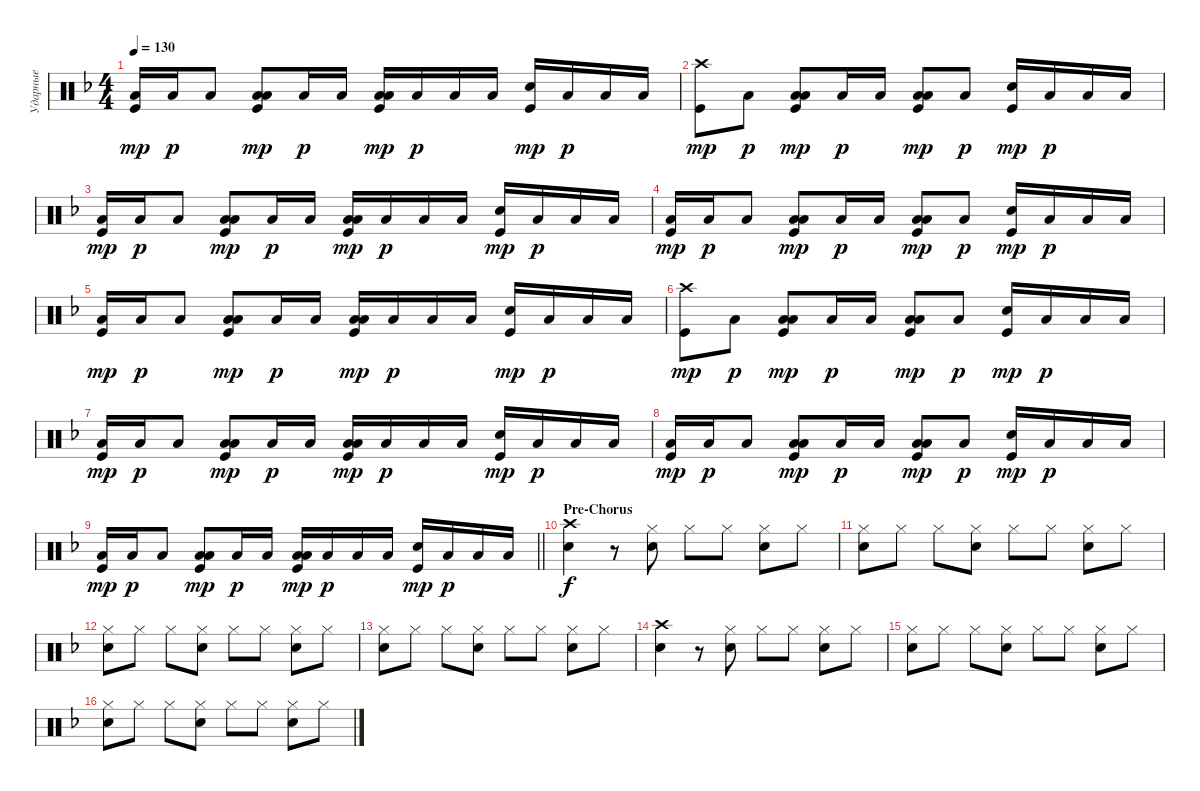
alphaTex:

\track ("Ударные" "Ударные") {instrument percussion}
\staff {score}
\articulation defaults
\ts (4 4)
\tempo 130
\clef neutral
\ks dminor
("Low Tom (hit)" "Kick (hit)").16{dy mp} "Low Tom (hit)".16{dy p} "Low Tom (hit)".8{bd 240} ("Low Tom (hit)" "Kick (hit)" "Low Tom (hit)").8{bd 240 dy mp} "Low Tom (hit)".16{dy p} "Low Tom (hit)".16 ("Low Tom (hit)" "Kick (hit)" "Low Tom (hit)").16{bd 240 dy mp} "Low Tom (hit)".16{dy p} "Low Tom (hit)".16 "Low Tom (hit)".16 ("Kick (hit)" "Snare (hit) 2").16{dy mp} "Low Tom (hit)".16{dy p} "Low Tom (hit)".16 "Low Tom (hit)".16 |
("Kick (hit)" "Crash high (hit)").8{dy mp} "Low Tom (hit)".8{dy p} ("Low Tom (hit)" "Kick (hit)" "Low Tom (hit)").8{bd 240 dy mp} "Low Tom (hit)".16{dy p} "Low Tom (hit)".16 ("Low Tom (hit)" "Kick (hit)" "Low Tom (hit)").8{bd 240 dy mp} "Low Tom (hit)".8{dy p} ("Kick (hit)" "Snare (hit) 2").16{dy mp} "Low Tom (hit)".16{dy p} "Low Tom (hit)".16 "Low Tom (hit)".16 |
("Low Tom (hit)" "Kick (hit)").16{dy mp} "Low Tom (hit)".16{dy p} "Low Tom (hit)".8{bd 240} ("Low Tom (hit)" "Kick (hit)" "Low Tom (hit)").8{bd 240 dy mp} "Low Tom (hit)".16{dy p} "Low Tom (hit)".16 ("Low Tom (hit)" "Kick (hit)" "Low Tom (hit)").16{bd 240 dy mp} "Low Tom (hit)".16{dy p} "Low Tom (hit)".16 "Low Tom (hit)".16 ("Kick (hit)" "Snare (hit) 2").16{dy mp} "Low Tom (hit)".16{dy p} "Low Tom (hit)".16 "Low Tom (hit)".16 |
("Low Tom (hit)" "Kick (hit)").16{dy mp} "Low Tom (hit)".16{dy p} "Low Tom (hit)".8{bd 240} ("Low Tom (hit)" "Kick (hit)" "Low Tom (hit)").8{bd 240 dy mp} "Low Tom (hit)".16{dy p} "Low Tom (hit)".16 ("Low Tom (hit)" "Kick (hit)" "Low Tom (hit)").8{bd 240 dy mp} "Low Tom (hit)".8{dy p} ("Kick (hit)" "Snare (hit) 2").16{dy mp} "Low Tom (hit)".16{dy p} "Low Tom (hit)".16 "Low Tom (hit)".16 |
("Low Tom (hit)" "Kick (hit)").16{dy mp} "Low Tom (hit)".16{dy p} "Low Tom (hit)".8{bd 240} ("Low Tom (hit)" "Kick (hit)" "Low Tom (hit)").8{bd 240 dy mp} "Low Tom (hit)".16{dy p} "Low Tom (hit)".16 ("Low Tom (hit)" "Kick (hit)" "Low Tom (hit)").16{bd 240 dy mp} "Low Tom (hit)".16{dy p} "Low Tom (hit)".16 "Low Tom (hit)".16 ("Kick (hit)" "Snare (hit) 2").16{dy mp} "Low Tom (hit)".16{dy p} "Low Tom (hit)".16 "Low Tom (hit)".16 |
("Kick (hit)" "Crash high (hit)").8{dy mp} "Low Tom (hit)".8{dy p} ("Low Tom (hit)" "Kick (hit)" "Low Tom (hit)").8{bd 240 dy mp} "Low Tom (hit)".16{dy p} "Low Tom (hit)".16 ("Low Tom (hit)" "Kick (hit)" "Low Tom (hit)").8{bd 240 dy mp} "Low Tom (hit)".8{dy p} ("Kick (hit)" "Snare (hit) 2").16{dy mp} "Low Tom (hit)".16{dy p} "Low Tom (hit)".16 "Low Tom (hit)".16 |
("Low Tom (hit)" "Kick (hit)").16{dy mp} "Low Tom (hit)".16{dy p} "Low Tom (hit)".8{bd 240} ("Low Tom (hit)" "Kick (hit)" "Low Tom (hit)").8{bd 240 dy mp} "Low Tom (hit)".16{dy p} "Low Tom (hit)".16 ("Low Tom (hit)" "Kick (hit)" "Low Tom (hit)").16{bd 240 dy mp} "Low Tom (hit)".16{dy p} "Low Tom (hit)".16 "Low Tom (hit)".16 ("Kick (hit)" "Snare (hit) 2").16{dy mp} "Low Tom (hit)".16{dy p} "Low Tom (hit)".16 "Low Tom (hit)".16 |
("Low Tom (hit)" "Kick (hit)").16{dy mp} "Low Tom (hit)".16{dy p} "Low Tom (hit)".8{bd 240} ("Low Tom (hit)" "Kick (hit)" "Low Tom (hit)").8{bd 240 dy mp} "Low Tom (hit)".16{dy p} "Low Tom (hit)".16 ("Low Tom (hit)" "Kick (hit)" "Low Tom (hit)").8{bd 240 dy mp} "Low Tom (hit)".8{dy p} ("Kick (hit)" "Snare (hit) 2").16{dy mp} "Low Tom (hit)".16{dy p} "Low Tom (hit)".16 "Low Tom (hit)".16 |
\barLineRight lightlight
("Low Tom (hit)" "Kick (hit)").16{dy mp} "Low Tom (hit)".16{dy p} "Low Tom (hit)".8{bd 240} ("Low Tom (hit)" "Kick (hit)" "Low Tom (hit)").8{bd 240 dy mp} "Low Tom (hit)".16{dy p} "Low Tom (hit)".16 ("Low Tom (hit)" "Kick (hit)" "Low Tom (hit)").16{bd 240 dy mp} "Low Tom (hit)".16{dy p} "Low Tom (hit)".16 "Low Tom (hit)".16 ("Kick (hit)" "Snare (hit) 2").16{dy mp} "Low Tom (hit)".16{dy p} "Low Tom (hit)".16 "Low Tom (hit)".16 |
\section ("" "Pre-Chorus")
("Snare (hit) 2" "Crash high (hit)").4{dy f} r.8 ("Hi-Hat (closed)" "Snare (hit) 2").8 "Hi-Hat (closed)".8 "Hi-Hat (closed)".8 ("Hi-Hat (closed)" "Snare (hit) 2").8 "Hi-Hat (closed)".8 |
("Snare (hit) 2" "Hi-Hat (closed)").8 "Hi-Hat (closed)".8 "Hi-Hat (closed)".8 ("Hi-Hat (closed)" "Snare (hit) 2").8 "Hi-Hat (closed)".8 "Hi-Hat (closed)".8 ("Hi-Hat (closed)" "Snare (hit) 2").8 "Hi-Hat (closed)".8 |
("Snare (hit) 2" "Hi-Hat (closed)").8 "Hi-Hat (closed)".8 "Hi-Hat (closed)".8 ("Hi-Hat (closed)" "Snare (hit) 2").8 "Hi-Hat (closed)".8 "Hi-Hat (closed)".8 ("Hi-Hat (closed)" "Snare (hit) 2").8 "Hi-Hat (closed)".8 |
("Snare (hit) 2" "Hi-Hat (closed)").8 "Hi-Hat (closed)".8 "Hi-Hat (closed)".8 ("Hi-Hat (closed)" "Snare (hit) 2").8 "Hi-Hat (closed)".8 "Hi-Hat (closed)".8 ("Hi-Hat (closed)" "Snare (hit) 2").8 "Hi-Hat (closed)".8 |
("Snare (hit) 2" "Crash high (hit)").4 r.8 ("Hi-Hat (closed)" "Snare (hit) 2").8 "Hi-Hat (closed)".8 "Hi-Hat (closed)".8 ("Hi-Hat (closed)" "Snare (hit) 2").8 "Hi-Hat (closed)".8 |
("Snare (hit) 2" "Hi-Hat (closed)").8 "Hi-Hat (closed)".8 "Hi-Hat (closed)".8 ("Hi-Hat (closed)" "Snare (hit) 2").8 "Hi-Hat (closed)".8 "Hi-Hat (closed)".8 ("Hi-Hat (closed)" "Snare (hit) 2").8 "Hi-Hat (closed)".8 |
("Snare (hit) 2" "Hi-Hat (closed)").8 "Hi-Hat (closed)".8 "Hi-Hat (closed)".8 ("Hi-Hat (closed)" "Snare (hit) 2").8 "Hi-Hat (closed)".8 "Hi-Hat (closed)".8 ("Hi-Hat (closed)" "Snare (hit) 2").8 "Hi-Hat (closed)".8
